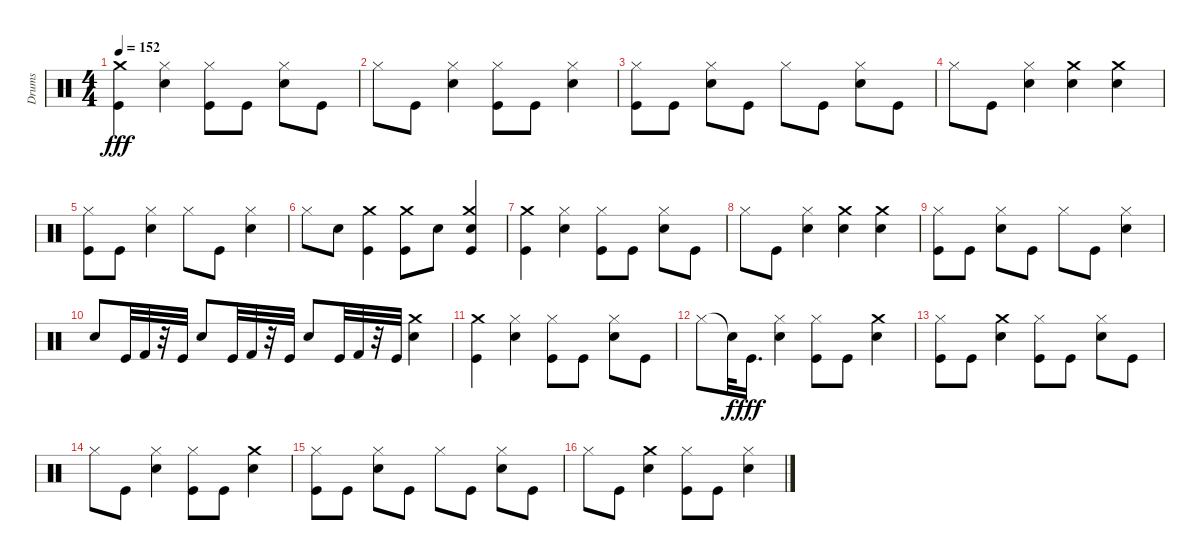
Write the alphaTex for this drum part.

\track ("Drums" "Drums") {instrument percussion}
\staff {score}
\articulation defaults
\ts (4 4)
\tempo 152
\clef neutral
\ks c
("Kick (hit)" "Crash medium (hit)").4{dy fff} ("Hi-Hat (closed)" "Snare (hit) 2").4 ("Kick (hit)" "Hi-Hat (closed)").8 "Kick (hit)".8 ("Snare (hit) 2" "Hi-Hat (closed)").8 "Kick (hit)".8 |
"Hi-Hat (closed)".8 "Kick (hit)".8 ("Snare (hit) 2" "Hi-Hat (closed)").4 ("Hi-Hat (closed)" "Kick (hit)").8 "Kick (hit)".8 ("Snare (hit) 2" "Hi-Hat (closed)").4 |
("Kick (hit)" "Hi-Hat (closed)").8 "Kick (hit)".8 ("Snare (hit) 2" "Hi-Hat (closed)").8 "Kick (hit)".8 "Hi-Hat (closed)".8 "Kick (hit)".8 ("Snare (hit) 2" "Hi-Hat (closed)").8 "Kick (hit)".8 |
"Hi-Hat (closed)".8 "Kick (hit)".8 ("Snare (hit) 2" "Hi-Hat (closed)").4 ("Crash medium (hit)" "Snare (hit) 2").4 ("Crash medium (hit)" "Snare (hit) 2").4 |
("Kick (hit)" "Hi-Hat (closed)").8 "Kick (hit)".8 ("Snare (hit) 2" "Hi-Hat (closed)").4 "Hi-Hat (closed)".8 "Kick (hit)".8 ("Snare (hit) 2" "Hi-Hat (closed)").4 |
"Hi-Hat (closed)".8 "Snare (hit) 2".8 ("Crash medium (hit)" "Kick (hit)").4 ("Kick (hit)" "Crash medium (hit)").8 "Snare (hit) 2".8 ("Snare (hit) 2" "Crash medium (hit)" "Kick (hit)").4 |
("Kick (hit)" "Crash medium (hit)").4 ("Hi-Hat (closed)" "Snare (hit) 2").4 ("Kick (hit)" "Hi-Hat (closed)").8 "Kick (hit)".8 ("Snare (hit) 2" "Hi-Hat (closed)").8 "Kick (hit)".8 |
"Hi-Hat (closed)".8 "Kick (hit)".8 ("Snare (hit) 2" "Hi-Hat (closed)").4 ("Crash medium (hit)" "Snare (hit) 2").4 ("Crash medium (hit)" "Snare (hit) 2").4 |
("Kick (hit)" "Hi-Hat (closed)").8 "Kick (hit)".8 ("Snare (hit) 2" "Hi-Hat (closed)").8 "Kick (hit)".8 "Hi-Hat (closed)".8 "Kick (hit)".8 ("Snare (hit) 2" "Hi-Hat (closed)").4 |
"Snare (hit) 2".8 "Kick (hit)".32 "Kick (hit) 2".32 r.32 "Kick (hit)".32 "Snare (hit) 2".8 "Kick (hit)".32 "Kick (hit) 2".32 r.32 "Kick (hit)".32 "Snare (hit) 2".8 "Kick (hit)".32 "Kick (hit) 2".32 r.32 "Kick (hit)".32 ("Crash medium (hit)" "Snare (hit) 2").4 |
("Kick (hit)" "Crash medium (hit)").4 ("Snare (hit) 2" "Hi-Hat (closed)").4 ("Kick (hit)" "Hi-Hat (closed)").8 "Kick (hit)".8 ("Snare (hit) 2" "Hi-Hat (closed)").8 "Kick (hit)".8 |
"Hi-Hat (closed)".8 "Snare (hit)"{t}.32{dy f} "Kick (hit)".16{d dy fff} ("Snare (hit) 2" "Hi-Hat (closed)").4 ("Kick (hit)" "Hi-Hat (closed)").8 "Kick (hit)".8 ("Crash medium (hit)" "Snare (hit) 2").4 |
("Hi-Hat (closed)" "Kick (hit)").8 "Kick (hit)".8 ("Snare (hit) 2" "Crash medium (hit)").4 ("Hi-Hat (closed)" "Kick (hit)").8 "Kick (hit)".8 ("Snare (hit) 2" "Hi-Hat (closed)").8 "Kick (hit)".8 |
"Hi-Hat (closed)".8 "Kick (hit)".8 ("Snare (hit) 2" "Hi-Hat (closed)").4 ("Hi-Hat (closed)" "Kick (hit)").8 "Kick (hit)".8 ("Crash medium (hit)" "Snare (hit) 2").4 |
("Hi-Hat (closed)" "Kick (hit)").8 "Kick (hit)".8 ("Snare (hit) 2" "Hi-Hat (closed)").8 "Kick (hit)".8 "Hi-Hat (closed)".8 "Kick (hit)".8 ("Snare (hit) 2" "Hi-Hat (closed)").8 "Kick (hit)".8 |
"Hi-Hat (closed)".8 "Kick (hit)".8 ("Crash medium (hit)" "Snare (hit) 2").4 ("Hi-Hat (closed)" "Kick (hit)").8 "Kick (hit)".8 ("Snare (hit) 2" "Hi-Hat (closed)").4
